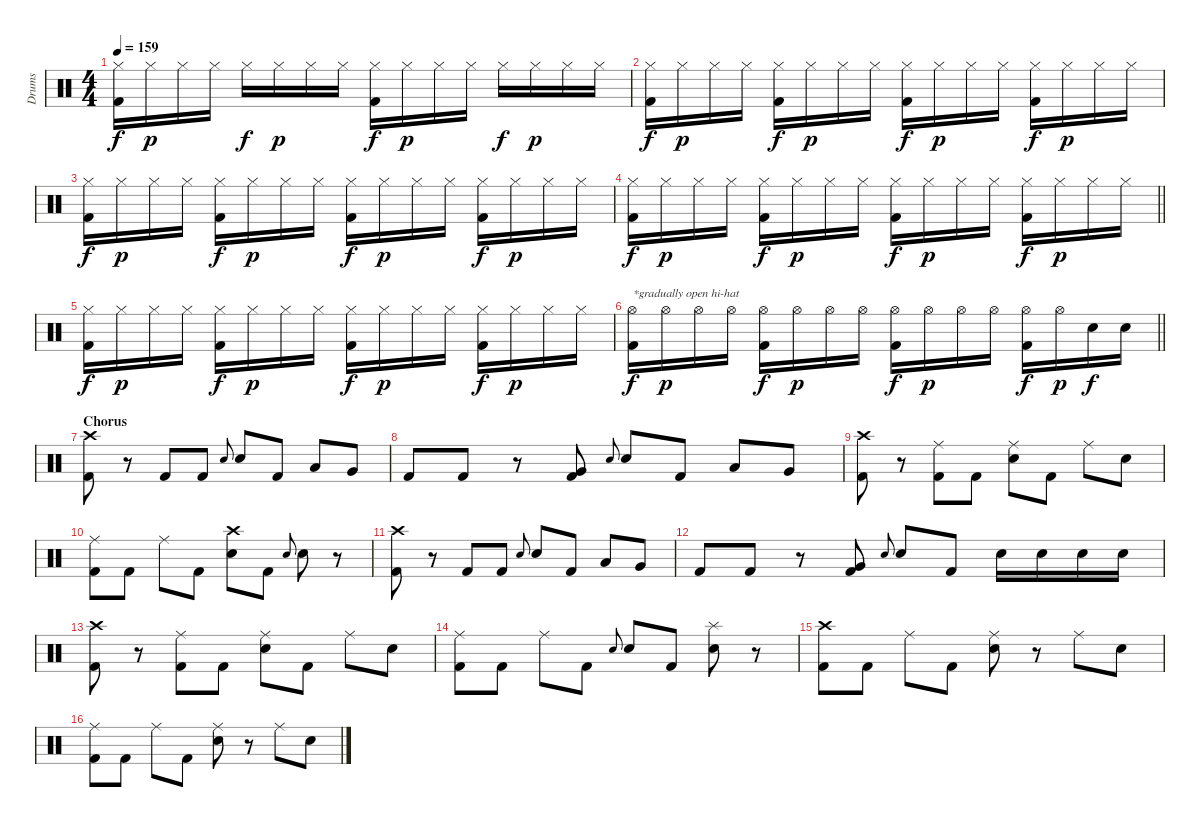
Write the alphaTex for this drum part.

\track ("Drums" "Drums") {instrument percussion}
\staff {score}
\articulation defaults
\ts (4 4)
\tempo 159
\clef neutral
\ks c
("Hi-Hat (closed)" "Kick (hit) 2").16{dy f} "Hi-Hat (closed)".16{dy p} "Hi-Hat (closed)".16 "Hi-Hat (closed)".16 "Hi-Hat (closed)".16{dy f} "Hi-Hat (closed)".16{dy p} "Hi-Hat (closed)".16 "Hi-Hat (closed)".16 ("Hi-Hat (closed)" "Kick (hit) 2").16{dy f} "Hi-Hat (closed)".16{dy p} "Hi-Hat (closed)".16 "Hi-Hat (closed)".16 "Hi-Hat (closed)".16{dy f} "Hi-Hat (closed)".16{dy p} "Hi-Hat (closed)".16 "Hi-Hat (closed)".16 |
("Hi-Hat (closed)" "Kick (hit) 2").16{dy f} "Hi-Hat (closed)".16{dy p} "Hi-Hat (closed)".16 "Hi-Hat (closed)".16 ("Hi-Hat (closed)" "Kick (hit) 2").16{dy f} "Hi-Hat (closed)".16{dy p} "Hi-Hat (closed)".16 "Hi-Hat (closed)".16 ("Hi-Hat (closed)" "Kick (hit) 2").16{dy f} "Hi-Hat (closed)".16{dy p} "Hi-Hat (closed)".16 "Hi-Hat (closed)".16 ("Hi-Hat (closed)" "Kick (hit) 2").16{dy f} "Hi-Hat (closed)".16{dy p} "Hi-Hat (closed)".16 "Hi-Hat (closed)".16 |
("Hi-Hat (closed)" "Kick (hit) 2").16{dy f} "Hi-Hat (closed)".16{dy p} "Hi-Hat (closed)".16 "Hi-Hat (closed)".16 ("Hi-Hat (closed)" "Kick (hit) 2").16{dy f} "Hi-Hat (closed)".16{dy p} "Hi-Hat (closed)".16 "Hi-Hat (closed)".16 ("Hi-Hat (closed)" "Kick (hit) 2").16{dy f} "Hi-Hat (closed)".16{dy p} "Hi-Hat (closed)".16 "Hi-Hat (closed)".16 ("Hi-Hat (closed)" "Kick (hit) 2").16{dy f} "Hi-Hat (closed)".16{dy p} "Hi-Hat (closed)".16 "Hi-Hat (closed)".16 |
\barLineRight lightlight
("Hi-Hat (closed)" "Kick (hit) 2").16{dy f} "Hi-Hat (closed)".16{dy p} "Hi-Hat (closed)".16 "Hi-Hat (closed)".16 ("Hi-Hat (closed)" "Kick (hit) 2").16{dy f} "Hi-Hat (closed)".16{dy p} "Hi-Hat (closed)".16 "Hi-Hat (closed)".16 ("Hi-Hat (closed)" "Kick (hit) 2").16{dy f} "Hi-Hat (closed)".16{dy p} "Hi-Hat (closed)".16 "Hi-Hat (closed)".16 ("Hi-Hat (closed)" "Kick (hit) 2").16{dy f} "Hi-Hat (closed)".16{dy p} "Hi-Hat (closed)".16 "Hi-Hat (closed)".16 |
("Hi-Hat (closed)" "Kick (hit) 2").16{dy f} "Hi-Hat (closed)".16{dy p} "Hi-Hat (closed)".16 "Hi-Hat (closed)".16 ("Hi-Hat (closed)" "Kick (hit) 2").16{dy f} "Hi-Hat (closed)".16{dy p} "Hi-Hat (closed)".16 "Hi-Hat (closed)".16 ("Hi-Hat (closed)" "Kick (hit) 2").16{dy f} "Hi-Hat (closed)".16{dy p} "Hi-Hat (closed)".16 "Hi-Hat (closed)".16 ("Hi-Hat (closed)" "Kick (hit) 2").16{dy f} "Hi-Hat (closed)".16{dy p} "Hi-Hat (closed)".16 "Hi-Hat (closed)".16 |
\barLineRight lightlight
("Hi-Hat (open)" "Kick (hit) 2").16{txt "*gradually open hi-hat" dy f} "Hi-Hat (open)".16{dy p} "Hi-Hat (open)".16 "Hi-Hat (open)".16 ("Hi-Hat (open)" "Kick (hit) 2").16{dy f} "Hi-Hat (open)".16{dy p} "Hi-Hat (open)".16 "Hi-Hat (open)".16 ("Hi-Hat (open)" "Kick (hit) 2").16{dy f} "Hi-Hat (open)".16{dy p} "Hi-Hat (open)".16 "Hi-Hat (open)".16 ("Hi-Hat (open)" "Kick (hit) 2").16{dy f} "Hi-Hat (open)".16{dy p} "Electric Snare (hit)".16{dy f} "Electric Snare (hit)".16 |
\section ("" "Chorus")
("Crash high (hit)" "Kick (hit) 2").8 r.8 "Kick (hit) 2".8 "Kick (hit) 2".8 "Electric Snare (hit)".8{gr onbeat} "Electric Snare (hit)".8 "Kick (hit) 2".8 "Low Tom (hit)".8 "Very Low Tom (hit)".8 |
"Kick (hit) 2".8 "Kick (hit) 2".8 r.8 ("Very Low Tom (hit)" "Kick (hit) 2").8 "Electric Snare (hit)".8{gr onbeat} "Electric Snare (hit)".8 "Kick (hit) 2".8 "Low Tom (hit)".8 "Very Low Tom (hit)".8 |
("Crash high (hit)" "Kick (hit) 2").8 r.8 ("Ride (middle)" "Kick (hit) 2").8 "Kick (hit) 2".8 ("Ride (middle)" "Electric Snare (hit)").8 "Kick (hit) 2".8 "Ride (middle)".8 "Electric Snare (hit)".8 |
("Ride (middle)" "Kick (hit) 2").8 "Kick (hit) 2".8 "Ride (middle)".8 "Kick (hit) 2".8 ("Crash high (hit)" "Electric Snare (hit)").8 "Kick (hit) 2".8 "Electric Snare (hit)".8{gr onbeat} "Electric Snare (hit)".8 r.8 |
("Crash high (hit)" "Kick (hit) 2").8 r.8 "Kick (hit) 2".8 "Kick (hit) 2".8 "Electric Snare (hit)".8{gr onbeat} "Electric Snare (hit)".8 "Kick (hit) 2".8 "Low Tom (hit)".8 "Very Low Tom (hit)".8 |
"Kick (hit) 2".8 "Kick (hit) 2".8 r.8 ("Very Low Tom (hit)" "Kick (hit) 2").8 "Electric Snare (hit)".8{gr onbeat} "Electric Snare (hit)".8 "Kick (hit) 2".8 "Electric Snare (hit)".16 "Electric Snare (hit)".16 "Electric Snare (hit)".16 "Electric Snare (hit)".16 |
("Crash high (hit)" "Kick (hit) 2").8 r.8 ("Ride (middle)" "Kick (hit) 2").8 "Kick (hit) 2".8 ("Ride (middle)" "Electric Snare (hit)").8 "Kick (hit) 2".8 "Ride (middle)".8 "Electric Snare (hit)".8 |
("Ride (middle)" "Kick (hit) 2").8 "Kick (hit) 2".8 "Ride (middle)".8 "Kick (hit) 2".8 "Electric Snare (hit)".8{gr onbeat} "Electric Snare (hit)".8 "Kick (hit) 2".8 ("Splash (hit)" "Electric Snare (hit)").8 r.8 |
("Crash high (hit)" "Kick (hit) 2").8 "Kick (hit) 2".8 "Ride (middle)".8 "Kick (hit) 2".8 ("Ride (middle)" "Electric Snare (hit)").8 r.8 "Ride (middle)".8 "Electric Snare (hit)".8 |
("Ride (middle)" "Kick (hit) 2").8 "Kick (hit) 2".8 "Ride (middle)".8 "Kick (hit) 2".8 ("Ride (middle)" "Electric Snare (hit)").8 r.8 "Ride (middle)".8 "Electric Snare (hit)".8
